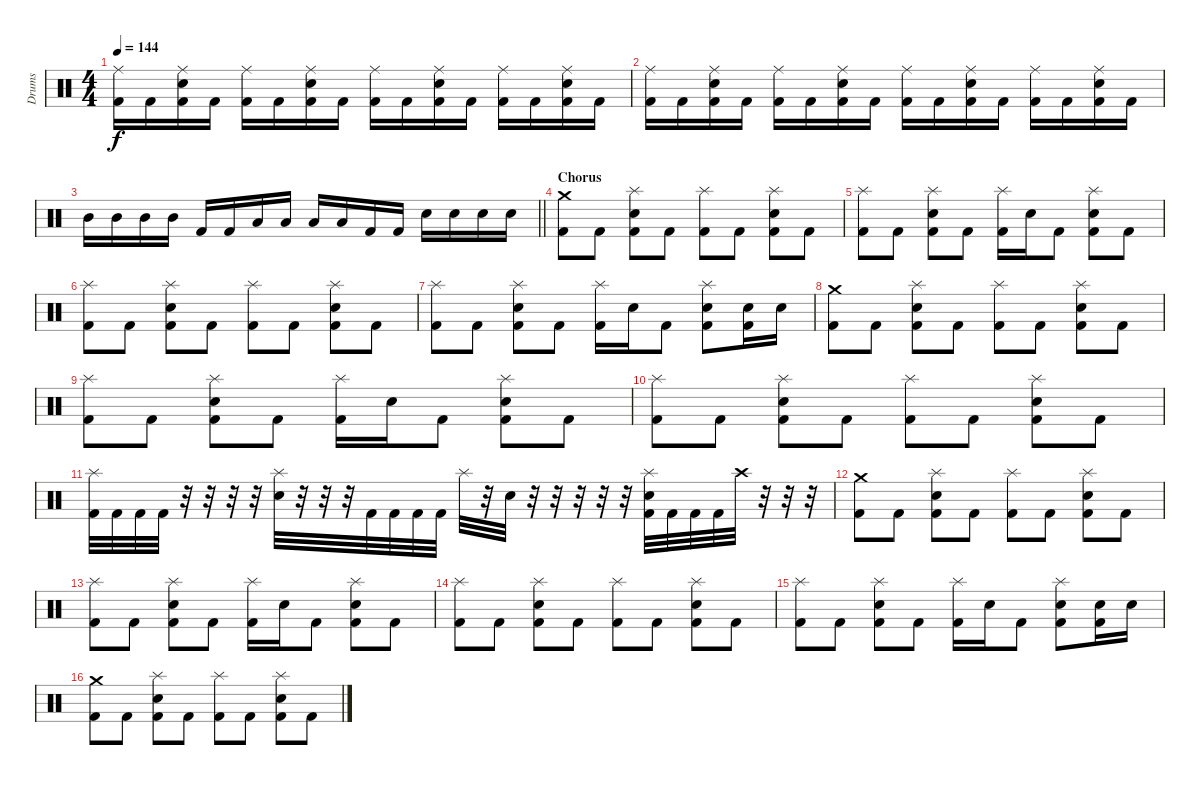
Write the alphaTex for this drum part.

\track ("Drums" "Drums") {instrument percussion}
\staff {score}
\articulation defaults
\ts (4 4)
\tempo 144
\clef neutral
\ks c
("Kick (hit) 2" "Ride (middle)").16{dy f} "Kick (hit) 2".16 ("Kick (hit) 2" "Snare (hit) 2" "Ride (middle)").16 "Kick (hit) 2".16 ("Kick (hit) 2" "Ride (middle)").16 "Kick (hit) 2".16 ("Kick (hit) 2" "Snare (hit) 2" "Ride (middle)").16 "Kick (hit) 2".16 ("Kick (hit) 2" "Ride (middle)").16 "Kick (hit) 2".16 ("Kick (hit) 2" "Snare (hit) 2" "Ride (middle)").16 "Kick (hit) 2".16 ("Kick (hit) 2" "Ride (middle)").16 "Kick (hit) 2".16 ("Kick (hit) 2" "Snare (hit) 2" "Ride (middle)").16 "Kick (hit) 2".16 |
("Kick (hit) 2" "Ride (middle)").16 "Kick (hit) 2".16 ("Kick (hit) 2" "Snare (hit) 2" "Ride (middle)").16 "Kick (hit) 2".16 ("Kick (hit) 2" "Ride (middle)").16 "Kick (hit) 2".16 ("Kick (hit) 2" "Snare (hit) 2" "Ride (middle)").16 "Kick (hit) 2".16 ("Kick (hit) 2" "Ride (middle)").16 "Kick (hit) 2".16 ("Kick (hit) 2" "Snare (hit) 2" "Ride (middle)").16 "Kick (hit) 2".16 ("Kick (hit) 2" "Ride (middle)").16 "Kick (hit) 2".16 ("Kick (hit) 2" "Snare (hit) 2" "Ride (middle)").16 "Kick (hit) 2".16 |
\barLineRight lightlight "Mid Tom (hit)".16 "Mid Tom (hit)".16 "Mid Tom (hit)".16 "Mid Tom (hit)".16 "Kick (hit) 2".16 "Kick (hit) 2".16 "Low Tom (hit)".16 "Low Tom (hit)".16 "Low Tom (hit)".16 "Low Tom (hit)".16 "Kick (hit) 2".16 "Kick (hit) 2".16 "Snare (hit) 2".16 "Snare (hit) 2".16 "Snare (hit) 2".16 "Snare (hit) 2".16
|
\section ("" "Chorus")
("Kick (hit) 2" "Crash medium (hit)").8 "Kick (hit) 2".8 ("Kick (hit) 2" "Snare (hit) 2" "Splash (hit)").8 "Kick (hit) 2".8 ("Kick (hit) 2" "Splash (hit)").8 "Kick (hit) 2".8 ("Kick (hit) 2" "Snare (hit) 2" "Splash (hit)").8 "Kick (hit) 2".8 |
("Kick (hit) 2" "Splash (hit)").8 "Kick (hit) 2".8 ("Kick (hit) 2" "Snare (hit) 2" "Splash (hit)").8 "Kick (hit) 2".8 ("Kick (hit) 2" "Splash (hit)").16 "Snare (hit) 2".16 "Kick (hit) 2".8 ("Kick (hit) 2" "Snare (hit) 2" "Splash (hit)").8 "Kick (hit) 2".8 |
("Kick (hit) 2" "Splash (hit)").8 "Kick (hit) 2".8 ("Kick (hit) 2" "Snare (hit) 2" "Splash (hit)").8 "Kick (hit) 2".8 ("Kick (hit) 2" "Splash (hit)").8 "Kick (hit) 2".8 ("Kick (hit) 2" "Snare (hit) 2" "Splash (hit)").8 "Kick (hit) 2".8 |
("Kick (hit) 2" "Splash (hit)").8 "Kick (hit) 2".8 ("Kick (hit) 2" "Snare (hit) 2" "Splash (hit)").8 "Kick (hit) 2".8 ("Kick (hit) 2" "Splash (hit)").16 "Snare (hit) 2".16 "Kick (hit) 2".8 ("Kick (hit) 2" "Snare (hit) 2" "Splash (hit)").8 ("Kick (hit) 2" "Snare (hit) 2").16 "Snare (hit) 2".16 |
("Kick (hit) 2" "Crash medium (hit)").8 "Kick (hit) 2".8 ("Kick (hit) 2" "Snare (hit) 2" "Splash (hit)").8 "Kick (hit) 2".8 ("Kick (hit) 2" "Splash (hit)").8 "Kick (hit) 2".8 ("Kick (hit) 2" "Snare (hit) 2" "Splash (hit)").8 "Kick (hit) 2".8 |
("Kick (hit) 2" "Splash (hit)").8 "Kick (hit) 2".8 ("Kick (hit) 2" "Snare (hit) 2" "Splash (hit)").8 "Kick (hit) 2".8 ("Kick (hit) 2" "Splash (hit)").16 "Snare (hit) 2".16 "Kick (hit) 2".8 ("Kick (hit) 2" "Snare (hit) 2" "Splash (hit)").8 "Kick (hit) 2".8 |
("Kick (hit) 2" "Splash (hit)").8 "Kick (hit) 2".8 ("Kick (hit) 2" "Snare (hit) 2" "Splash (hit)").8 "Kick (hit) 2".8 ("Kick (hit) 2" "Splash (hit)").8 "Kick (hit) 2".8 ("Kick (hit) 2" "Snare (hit) 2" "Splash (hit)").8 "Kick (hit) 2".8 |
("Kick (hit) 2" "Splash (hit)").32 "Kick (hit) 2".32 "Kick (hit) 2".32 "Kick (hit) 2".32 r.32 r.32 r.32 r.32 ("Snare (hit) 2" "Splash (hit)").32 r.32 r.32 r.32 "Kick (hit) 2".32 "Kick (hit) 2".32 "Kick (hit) 2".32 "Kick (hit) 2".32 "Splash (hit)".32 r.32 "Snare (hit) 2".32 r.32 r.32 r.32 r.32 r.32 ("Kick (hit) 2" "Snare (hit) 2" "Splash (hit)").32 "Kick (hit) 2".32 "Kick (hit) 2".32 "Kick (hit) 2".32 "Crash high (hit)".32 r.32 r.32 r.32 |
("Kick (hit) 2" "Crash medium (hit)").8 "Kick (hit) 2".8 ("Kick (hit) 2" "Snare (hit) 2" "Splash (hit)").8 "Kick (hit) 2".8 ("Kick (hit) 2" "Splash (hit)").8 "Kick (hit) 2".8 ("Kick (hit) 2" "Snare (hit) 2" "Splash (hit)").8 "Kick (hit) 2".8 |
("Kick (hit) 2" "Splash (hit)").8 "Kick (hit) 2".8 ("Kick (hit) 2" "Snare (hit) 2" "Splash (hit)").8 "Kick (hit) 2".8 ("Kick (hit) 2" "Splash (hit)").16 "Snare (hit) 2".16 "Kick (hit) 2".8 ("Kick (hit) 2" "Snare (hit) 2" "Splash (hit)").8 "Kick (hit) 2".8 |
("Kick (hit) 2" "Splash (hit)").8 "Kick (hit) 2".8 ("Kick (hit) 2" "Snare (hit) 2" "Splash (hit)").8 "Kick (hit) 2".8 ("Kick (hit) 2" "Splash (hit)").8 "Kick (hit) 2".8 ("Kick (hit) 2" "Snare (hit) 2" "Splash (hit)").8 "Kick (hit) 2".8 |
("Kick (hit) 2" "Splash (hit)").8 "Kick (hit) 2".8 ("Kick (hit) 2" "Snare (hit) 2" "Splash (hit)").8 "Kick (hit) 2".8 ("Kick (hit) 2" "Splash (hit)").16 "Snare (hit) 2".16 "Kick (hit) 2".8 ("Kick (hit) 2" "Snare (hit) 2" "Splash (hit)").8 ("Kick (hit) 2" "Snare (hit) 2").16 "Snare (hit) 2".16 |
("Kick (hit) 2" "Crash medium (hit)").8 "Kick (hit) 2".8 ("Kick (hit) 2" "Snare (hit) 2" "Splash (hit)").8 "Kick (hit) 2".8 ("Kick (hit) 2" "Splash (hit)").8 "Kick (hit) 2".8 ("Kick (hit) 2" "Snare (hit) 2" "Splash (hit)").8 "Kick (hit) 2".8
